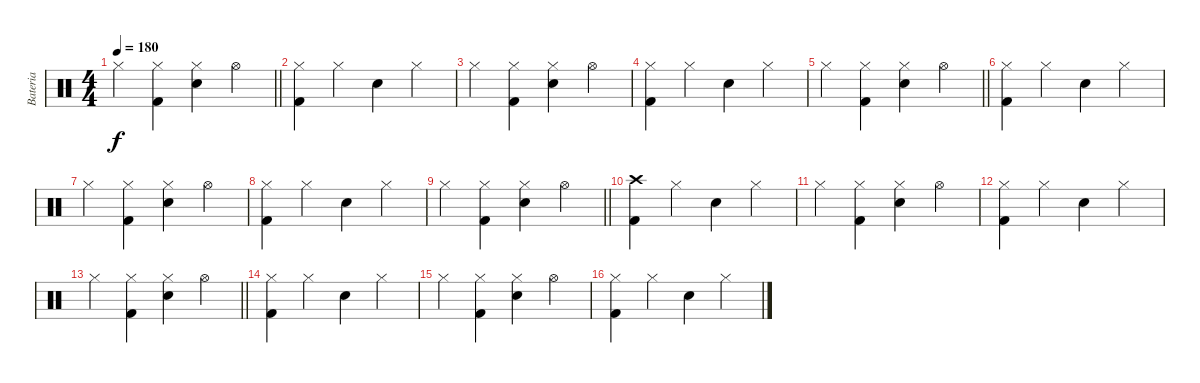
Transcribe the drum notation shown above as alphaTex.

\track ("Bateria" "Bateria") {instrument percussion}
\staff {score}
\articulation defaults
\ts (4 4)
\tempo 180
\clef neutral
\barLineRight lightlight
\ks c "Hi-Hat (closed)".4{dy f}
("Hi-Hat (closed)" "Kick (hit) 2").4 ("Hi-Hat (closed)" "Electric Snare (hit)").4 "Hi-Hat (open)".4 |
("Hi-Hat (closed)" "Kick (hit) 2").4 "Hi-Hat (closed)".4 "Electric Snare (hit)".4 "Hi-Hat (closed)".4 |
"Hi-Hat (closed)".4 ("Hi-Hat (closed)" "Kick (hit) 2").4 ("Hi-Hat (closed)" "Electric Snare (hit)").4 "Hi-Hat (open)".4 |
("Hi-Hat (closed)" "Kick (hit) 2").4 "Hi-Hat (closed)".4 "Electric Snare (hit)".4 "Hi-Hat (closed)".4 |
\barLineRight lightlight "Hi-Hat (closed)".4
("Hi-Hat (closed)" "Kick (hit) 2").4 ("Hi-Hat (closed)" "Electric Snare (hit)").4 "Hi-Hat (open)".4 |
("Hi-Hat (closed)" "Kick (hit) 2").4 "Hi-Hat (closed)".4 "Electric Snare (hit)".4 "Hi-Hat (closed)".4 |
"Hi-Hat (closed)".4 ("Hi-Hat (closed)" "Kick (hit) 2").4 ("Hi-Hat (closed)" "Electric Snare (hit)").4 "Hi-Hat (open)".4 |
("Hi-Hat (closed)" "Kick (hit) 2").4 "Hi-Hat (closed)".4 "Electric Snare (hit)".4 "Hi-Hat (closed)".4 |
\barLineRight lightlight "Hi-Hat (closed)".4
("Hi-Hat (closed)" "Kick (hit) 2").4 ("Hi-Hat (closed)" "Electric Snare (hit)").4 "Hi-Hat (open)".4 |
("Crash high (hit)" "Kick (hit) 2").4 "Hi-Hat (closed)".4 "Electric Snare (hit)".4 "Hi-Hat (closed)".4 |
"Hi-Hat (closed)".4 ("Hi-Hat (closed)" "Kick (hit) 2").4 ("Hi-Hat (closed)" "Electric Snare (hit)").4 "Hi-Hat (open)".4 |
("Hi-Hat (closed)" "Kick (hit) 2").4 "Hi-Hat (closed)".4 "Electric Snare (hit)".4 "Hi-Hat (closed)".4 |
\barLineRight lightlight "Hi-Hat (closed)".4
("Hi-Hat (closed)" "Kick (hit) 2").4 ("Hi-Hat (closed)" "Electric Snare (hit)").4 "Hi-Hat (open)".4 |
("Hi-Hat (closed)" "Kick (hit) 2").4 "Hi-Hat (closed)".4 "Electric Snare (hit)".4 "Hi-Hat (closed)".4 |
"Hi-Hat (closed)".4 ("Hi-Hat (closed)" "Kick (hit) 2").4 ("Hi-Hat (closed)" "Electric Snare (hit)").4 "Hi-Hat (open)".4 |
("Hi-Hat (closed)" "Kick (hit) 2").4 "Hi-Hat (closed)".4 "Electric Snare (hit)".4 "Hi-Hat (closed)".4
